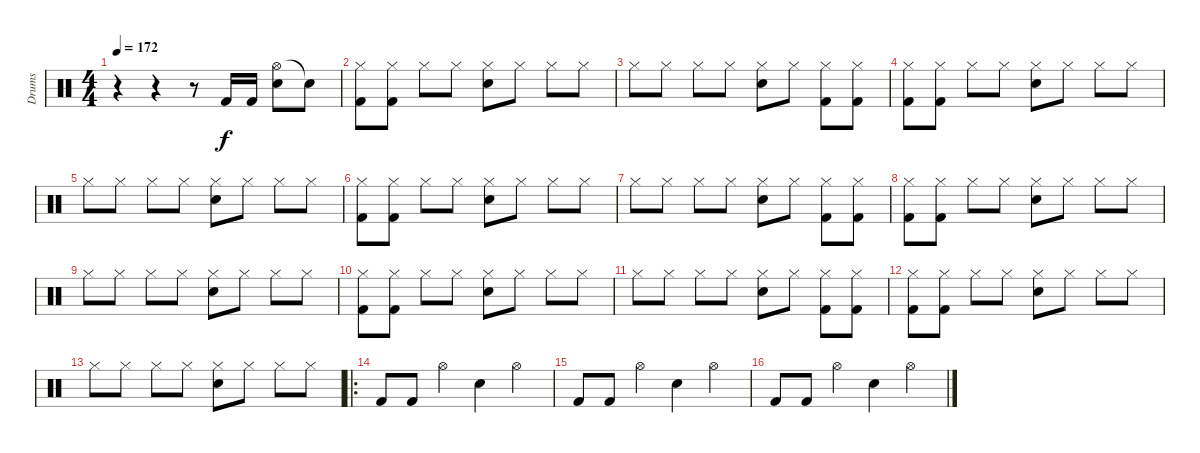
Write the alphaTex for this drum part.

\track ("Drums" "Drums") {instrument percussion}
\staff {score}
\articulation defaults
\ts (4 4)
\tempo 172
\clef neutral
\ks c
r.4{dy f} r.4 r.8 "Kick (hit) 2".16 "Kick (hit) 2".16 ("Hi-Hat (open)" "Electric Snare (hit)").8 "Snare (hit)"{t}.8 |
("Hi-Hat (closed)" "Kick (hit) 2").8 ("Hi-Hat (closed)" "Kick (hit) 2").8 "Hi-Hat (closed)".8 "Hi-Hat (closed)".8 ("Hi-Hat (closed)" "Electric Snare (hit)").8 "Hi-Hat (closed)".8 "Hi-Hat (closed)".8 "Hi-Hat (closed)".8 |
"Hi-Hat (closed)".8 "Hi-Hat (closed)".8 "Hi-Hat (closed)".8 "Hi-Hat (closed)".8 ("Hi-Hat (closed)" "Electric Snare (hit)").8 "Hi-Hat (closed)".8 ("Hi-Hat (closed)" "Kick (hit) 2").8 ("Hi-Hat (closed)" "Kick (hit) 2").8 |
("Hi-Hat (closed)" "Kick (hit) 2").8 ("Hi-Hat (closed)" "Kick (hit) 2").8 "Hi-Hat (closed)".8 "Hi-Hat (closed)".8 ("Hi-Hat (closed)" "Electric Snare (hit)").8 "Hi-Hat (closed)".8 "Hi-Hat (closed)".8 "Hi-Hat (closed)".8 |
"Hi-Hat (closed)".8 "Hi-Hat (closed)".8 "Hi-Hat (closed)".8 "Hi-Hat (closed)".8 ("Hi-Hat (closed)" "Electric Snare (hit)").8 "Hi-Hat (closed)".8 "Hi-Hat (closed)".8 "Hi-Hat (closed)".8 |
("Hi-Hat (closed)" "Kick (hit) 2").8 ("Hi-Hat (closed)" "Kick (hit) 2").8 "Hi-Hat (closed)".8 "Hi-Hat (closed)".8 ("Hi-Hat (closed)" "Electric Snare (hit)").8 "Hi-Hat (closed)".8 "Hi-Hat (closed)".8 "Hi-Hat (closed)".8 |
"Hi-Hat (closed)".8 "Hi-Hat (closed)".8 "Hi-Hat (closed)".8 "Hi-Hat (closed)".8 ("Hi-Hat (closed)" "Electric Snare (hit)").8 "Hi-Hat (closed)".8 ("Hi-Hat (closed)" "Kick (hit) 2").8 ("Hi-Hat (closed)" "Kick (hit) 2").8 |
("Hi-Hat (closed)" "Kick (hit) 2").8 ("Hi-Hat (closed)" "Kick (hit) 2").8 "Hi-Hat (closed)".8 "Hi-Hat (closed)".8 ("Hi-Hat (closed)" "Electric Snare (hit)").8 "Hi-Hat (closed)".8 "Hi-Hat (closed)".8 "Hi-Hat (closed)".8 |
"Hi-Hat (closed)".8 "Hi-Hat (closed)".8 "Hi-Hat (closed)".8 "Hi-Hat (closed)".8 ("Hi-Hat (closed)" "Electric Snare (hit)").8 "Hi-Hat (closed)".8 "Hi-Hat (closed)".8 "Hi-Hat (closed)".8 |
("Hi-Hat (closed)" "Kick (hit) 2").8 ("Hi-Hat (closed)" "Kick (hit) 2").8 "Hi-Hat (closed)".8 "Hi-Hat (closed)".8 ("Hi-Hat (closed)" "Electric Snare (hit)").8 "Hi-Hat (closed)".8 "Hi-Hat (closed)".8 "Hi-Hat (closed)".8 |
"Hi-Hat (closed)".8 "Hi-Hat (closed)".8 "Hi-Hat (closed)".8 "Hi-Hat (closed)".8 ("Hi-Hat (closed)" "Electric Snare (hit)").8 "Hi-Hat (closed)".8 ("Hi-Hat (closed)" "Kick (hit) 2").8 ("Hi-Hat (closed)" "Kick (hit) 2").8 |
("Hi-Hat (closed)" "Kick (hit) 2").8 ("Hi-Hat (closed)" "Kick (hit) 2").8 "Hi-Hat (closed)".8 "Hi-Hat (closed)".8 ("Hi-Hat (closed)" "Electric Snare (hit)").8 "Hi-Hat (closed)".8 "Hi-Hat (closed)".8 "Hi-Hat (closed)".8 |
"Hi-Hat (closed)".8 "Hi-Hat (closed)".8 "Hi-Hat (closed)".8 "Hi-Hat (closed)".8 ("Hi-Hat (closed)" "Electric Snare (hit)").8 "Hi-Hat (closed)".8 "Hi-Hat (closed)".8 "Hi-Hat (closed)".8 |
\ro "Kick (hit) 2".8 "Kick (hit) 2".8 "Hi-Hat (open)".4 "Electric Snare (hit)".4 "Hi-Hat (open)".4
|
"Kick (hit) 2".8 "Kick (hit) 2".8 "Hi-Hat (open)".4 "Electric Snare (hit)".4 "Hi-Hat (open)".4 |
"Kick (hit) 2".8 "Kick (hit) 2".8 "Hi-Hat (open)".4 "Electric Snare (hit)".4 "Hi-Hat (open)".4
